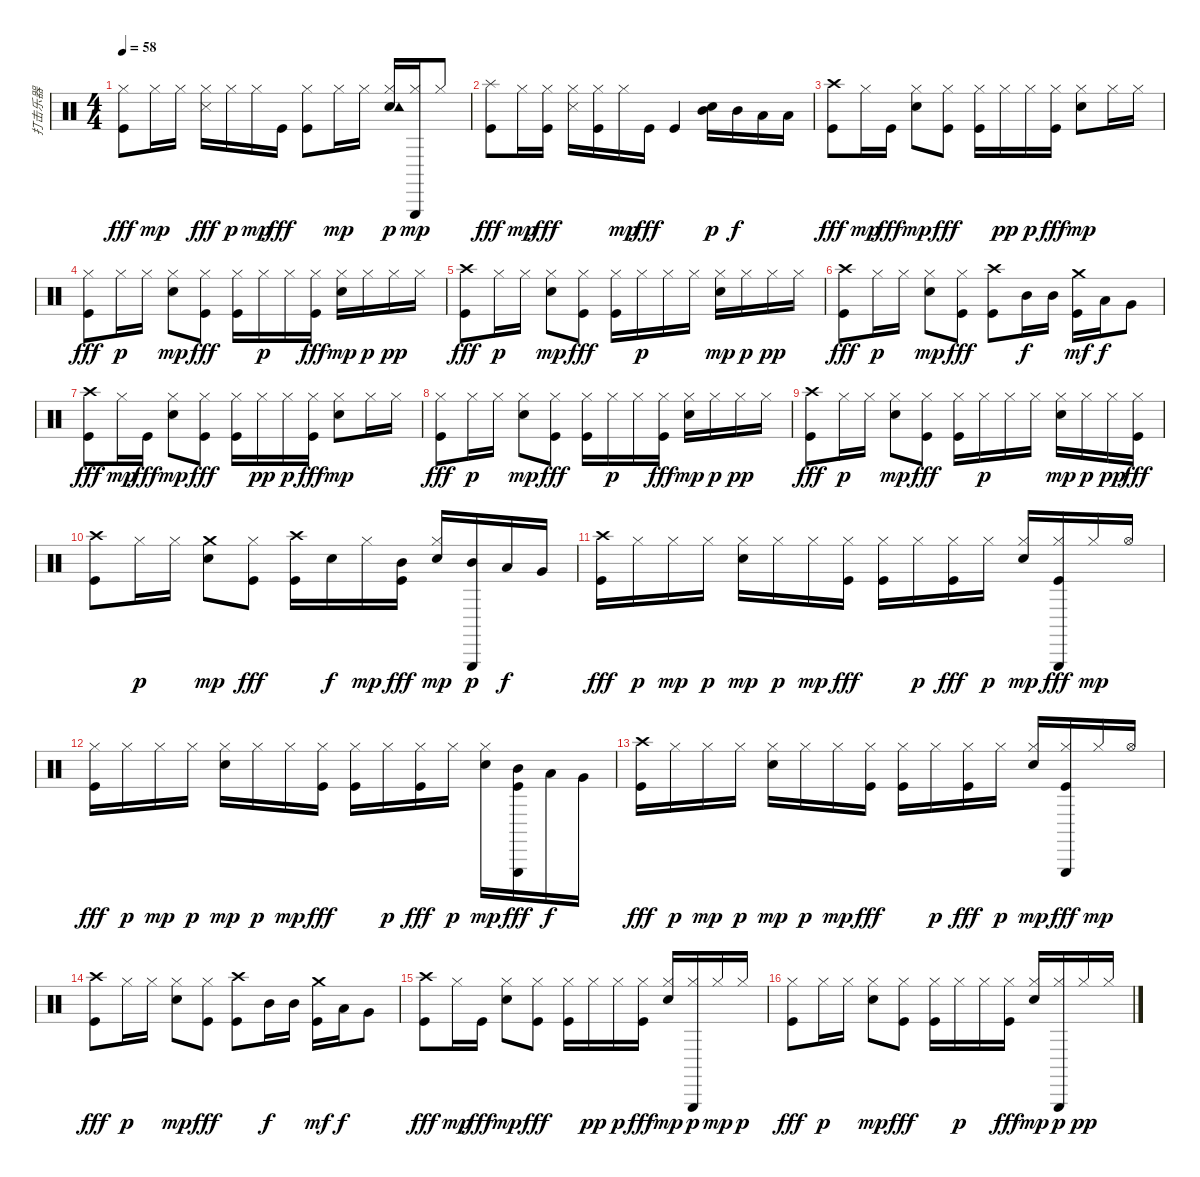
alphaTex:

\track ("打击乐器" "打击乐器") {instrument percussion}
\staff {score}
\articulation defaults
\ts (4 4)
\tempo 58
\clef neutral
\ks c
("Hi-Hat (closed)" "Kick (hit)").8{dy fff} "Hi-Hat (closed)".16{dy mp} "Hi-Hat (closed)".16 ("Hi-Hat (closed)" "Snare (side stick) 3").16{dy fff} "Hi-Hat (closed)".16{dy p} "Hi-Hat (closed)".16{dy mp} "Kick (hit)".16{dy fff} ("Hi-Hat (closed)" "Kick (hit)").8 "Hi-Hat (closed)".16{dy mp} "Hi-Hat (closed)".16 ("Hi-Hat (closed)" "Hand Clap (hit)" "Tambourine (hit)").16{dy p} ("Hi-Hat (closed)" "Triangle (hit)").16{dy mp} "Hi-Hat (closed)".8 |
("Splash (hit)" "Kick (hit)").8{dy fff} "Hi-Hat (closed)".16{dy mp} ("Hi-Hat (closed)" "Kick (hit)").16{dy fff} ("Hi-Hat (closed)" "Snare (side stick) 3").16 ("Hi-Hat (closed)" "Kick (hit)").16 "Hi-Hat (closed)".16{dy mp} "Kick (hit)".16{dy fff} "Kick (hit)".4 ("Mid Tom (hit)" "Hand Clap (hit)").16{dy p} "Mid Tom (hit)".16{dy f} "Low Tom (hit)".16 "Low Tom (hit)".16 |
("Crash high (hit)" "Kick (hit)").8{dy fff} "Hi-Hat (closed)".16{dy mp} "Kick (hit)".16{dy fff} ("Hi-Hat (closed)" "Electric Snare (hit)").8{dy mp} ("Hi-Hat (closed)" "Kick (hit)").8{dy fff} ("Hi-Hat (closed)" "Kick (hit)").16 "Hi-Hat (closed)".16{dy pp} "Hi-Hat (closed)".16{dy p} ("Hi-Hat (closed)" "Kick (hit)").16{dy fff} ("Hi-Hat (closed)" "Electric Snare (hit)").8{dy mp} "Hi-Hat (closed)".16 "Hi-Hat (closed)".16 |
("Hi-Hat (closed)" "Kick (hit)").8{dy fff} "Hi-Hat (closed)".16{dy p} "Hi-Hat (closed)".16 ("Hi-Hat (closed)" "Electric Snare (hit)").8{dy mp} ("Hi-Hat (closed)" "Kick (hit)").8{dy fff} ("Hi-Hat (closed)" "Kick (hit)").16 "Hi-Hat (closed)".16{dy p} "Hi-Hat (closed)".16 ("Hi-Hat (closed)" "Kick (hit)").16{dy fff} ("Hi-Hat (closed)" "Electric Snare (hit)").16{dy mp} "Hi-Hat (closed)".16{dy p} "Hi-Hat (closed)".16{dy pp} "Hi-Hat (closed)".16 |
("Crash high (hit)" "Kick (hit)").8{dy fff} "Hi-Hat (closed)".16{dy p} "Hi-Hat (closed)".16 ("Hi-Hat (closed)" "Electric Snare (hit)").8{dy mp} ("Hi-Hat (closed)" "Kick (hit)").8{dy fff} ("Hi-Hat (closed)" "Kick (hit)").16 "Hi-Hat (closed)".16{dy p} "Hi-Hat (closed)".16 "Hi-Hat (closed)".16 ("Hi-Hat (closed)" "Electric Snare (hit)").16{dy mp} "Hi-Hat (closed)".16{dy p} "Hi-Hat (closed)".16{dy pp} "Hi-Hat (closed)".16 |
("Crash high (hit)" "Kick (hit)").8{dy fff} "Hi-Hat (closed)".16{dy p} "Hi-Hat (closed)".16 ("Hi-Hat (closed)" "Electric Snare (hit)").8{dy mp} ("Hi-Hat (closed)" "Kick (hit)").8{dy fff} ("Crash high (hit)" "Kick (hit)").8 "Mid Tom (hit)".16{dy f} "Mid Tom (hit)".16 ("Crash medium (hit)" "Kick (hit)").16{dy mf} "Low Tom (hit)".16{dy f} "Very Low Tom (hit)".8 |
("Crash high (hit)" "Kick (hit)").8{dy fff} "Hi-Hat (closed)".16{dy mp} "Kick (hit)".16{dy fff} ("Hi-Hat (closed)" "Electric Snare (hit)").8{dy mp} ("Hi-Hat (closed)" "Kick (hit)").8{dy fff} ("Hi-Hat (closed)" "Kick (hit)").16 "Hi-Hat (closed)".16{dy pp} "Hi-Hat (closed)".16{dy p} ("Hi-Hat (closed)" "Kick (hit)").16{dy fff} ("Hi-Hat (closed)" "Electric Snare (hit)").8{dy mp} "Hi-Hat (closed)".16 "Hi-Hat (closed)".16 |
("Hi-Hat (closed)" "Kick (hit)").8{dy fff} "Hi-Hat (closed)".16{dy p} "Hi-Hat (closed)".16 ("Hi-Hat (closed)" "Electric Snare (hit)").8{dy mp} ("Hi-Hat (closed)" "Kick (hit)").8{dy fff} ("Hi-Hat (closed)" "Kick (hit)").16 "Hi-Hat (closed)".16{dy p} "Hi-Hat (closed)".16 ("Hi-Hat (closed)" "Kick (hit)").16{dy fff} ("Hi-Hat (closed)" "Electric Snare (hit)").16{dy mp} "Hi-Hat (closed)".16{dy p} "Hi-Hat (closed)".16{dy pp} "Hi-Hat (closed)".16 |
("Crash high (hit)" "Kick (hit)").8{dy fff} "Hi-Hat (closed)".16{dy p} "Hi-Hat (closed)".16 ("Hi-Hat (closed)" "Electric Snare (hit)").8{dy mp} ("Hi-Hat (closed)" "Kick (hit)").8{dy fff} ("Hi-Hat (closed)" "Kick (hit)").16 "Hi-Hat (closed)".16{dy p} "Hi-Hat (closed)".16 "Hi-Hat (closed)".16 ("Hi-Hat (closed)" "Electric Snare (hit)").16{dy mp} "Hi-Hat (closed)".16{dy p} "Hi-Hat (closed)".16{dy pp} ("Hi-Hat (closed)" "Kick (hit)").16{dy fff} |
("Crash high (hit)" "Kick (hit)").8 "Hi-Hat (closed)".16{dy p} "Hi-Hat (closed)".16 ("Crash medium (hit)" "Electric Snare (hit)").8{dy mp} ("Hi-Hat (closed)" "Kick (hit)").8{dy fff} ("Crash high (hit)" "Kick (hit)").16 "Electric Snare (hit)".16{dy f} "Hi-Hat (closed)".16{dy mp} ("Mid Tom (hit)" "Kick (hit)").16{dy fff} ("Hi-Hat (closed)" "Electric Snare (hit)").16{dy mp} ("Mid Tom (hit)" "Triangle (hit)").16{dy p} "Low Tom (hit)".16{dy f} "Very Low Tom (hit)".16 |
("Crash high (hit)" "Kick (hit)").16{dy fff} "Hi-Hat (closed)".16{dy p} "Hi-Hat (closed)".16{dy mp} "Hi-Hat (closed)".16{dy p} ("Hi-Hat (closed)" "Electric Snare (hit)").16{dy mp} "Hi-Hat (closed)".16{dy p} "Hi-Hat (closed)".16{dy mp} ("Hi-Hat (closed)" "Kick (hit)").16{dy fff} ("Hi-Hat (closed)" "Kick (hit)").16 "Hi-Hat (closed)".16{dy p} ("Hi-Hat (closed)" "Kick (hit)").16{dy fff} "Hi-Hat (closed)".16{dy p} ("Hi-Hat (closed)" "Electric Snare (hit)").16{dy mp} ("Hi-Hat (closed)" "Triangle (hit)" "Kick (hit)").16{dy fff} "Hi-Hat (closed)".16{dy mp} "Hi-Hat (open)".16 |
("Hi-Hat (closed)" "Kick (hit)").16{dy fff} "Hi-Hat (closed)".16{dy p} "Hi-Hat (closed)".16{dy mp} "Hi-Hat (closed)".16{dy p} ("Hi-Hat (closed)" "Electric Snare (hit)").16{dy mp} "Hi-Hat (closed)".16{dy p} "Hi-Hat (closed)".16{dy mp} ("Hi-Hat (closed)" "Kick (hit)").16{dy fff} ("Hi-Hat (closed)" "Kick (hit)").16 "Hi-Hat (closed)".16{dy p} ("Hi-Hat (closed)" "Kick (hit)").16{dy fff} "Hi-Hat (closed)".16{dy p} ("Hi-Hat (closed)" "Electric Snare (hit)").16{dy mp} ("Mid Tom (hit)" "Triangle (hit)" "Kick (hit)").16{dy fff} "Low Tom (hit)".16{dy f} "Very Low Tom (hit)".16 |
("Crash high (hit)" "Kick (hit)").16{dy fff} "Hi-Hat (closed)".16{dy p} "Hi-Hat (closed)".16{dy mp} "Hi-Hat (closed)".16{dy p} ("Hi-Hat (closed)" "Electric Snare (hit)").16{dy mp} "Hi-Hat (closed)".16{dy p} "Hi-Hat (closed)".16{dy mp} ("Hi-Hat (closed)" "Kick (hit)").16{dy fff} ("Hi-Hat (closed)" "Kick (hit)").16 "Hi-Hat (closed)".16{dy p} ("Hi-Hat (closed)" "Kick (hit)").16{dy fff} "Hi-Hat (closed)".16{dy p} ("Hi-Hat (closed)" "Electric Snare (hit)").16{dy mp} ("Hi-Hat (closed)" "Triangle (hit)" "Kick (hit)").16{dy fff} "Hi-Hat (closed)".16{dy mp} "Hi-Hat (open)".16 |
("Crash high (hit)" "Kick (hit)").8{dy fff} "Hi-Hat (closed)".16{dy p} "Hi-Hat (closed)".16 ("Hi-Hat (closed)" "Electric Snare (hit)").8{dy mp} ("Hi-Hat (closed)" "Kick (hit)").8{dy fff} ("Crash high (hit)" "Kick (hit)").8 "Mid Tom (hit)".16{dy f} "Mid Tom (hit)".16 ("Crash medium (hit)" "Kick (hit)").16{dy mf} "Low Tom (hit)".16{dy f} "Very Low Tom (hit)".8 |
("Crash high (hit)" "Kick (hit)").8{dy fff} "Hi-Hat (closed)".16{dy mp} "Kick (hit)".16{dy fff} ("Hi-Hat (closed)" "Electric Snare (hit)").8{dy mp} ("Hi-Hat (closed)" "Kick (hit)").8{dy fff} ("Hi-Hat (closed)" "Kick (hit)").16 "Hi-Hat (closed)".16{dy pp} "Hi-Hat (closed)".16{dy p} ("Hi-Hat (closed)" "Kick (hit)").16{dy fff} ("Hi-Hat (closed)" "Electric Snare (hit)").16{dy mp} ("Hi-Hat (closed)" "Triangle (hit)").16{dy p} "Hi-Hat (closed)".16{dy mp} "Hi-Hat (closed)".16{dy p} |
("Hi-Hat (closed)" "Kick (hit)").8{dy fff} "Hi-Hat (closed)".16{dy p} "Hi-Hat (closed)".16 ("Hi-Hat (closed)" "Electric Snare (hit)").8{dy mp} ("Hi-Hat (closed)" "Kick (hit)").8{dy fff} ("Hi-Hat (closed)" "Kick (hit)").16 "Hi-Hat (closed)".16{dy p} "Hi-Hat (closed)".16 ("Hi-Hat (closed)" "Kick (hit)").16{dy fff} ("Hi-Hat (closed)" "Electric Snare (hit)").16{dy mp} ("Hi-Hat (closed)" "Triangle (hit)").16{dy p} "Hi-Hat (closed)".16{dy pp} "Hi-Hat (closed)".16
